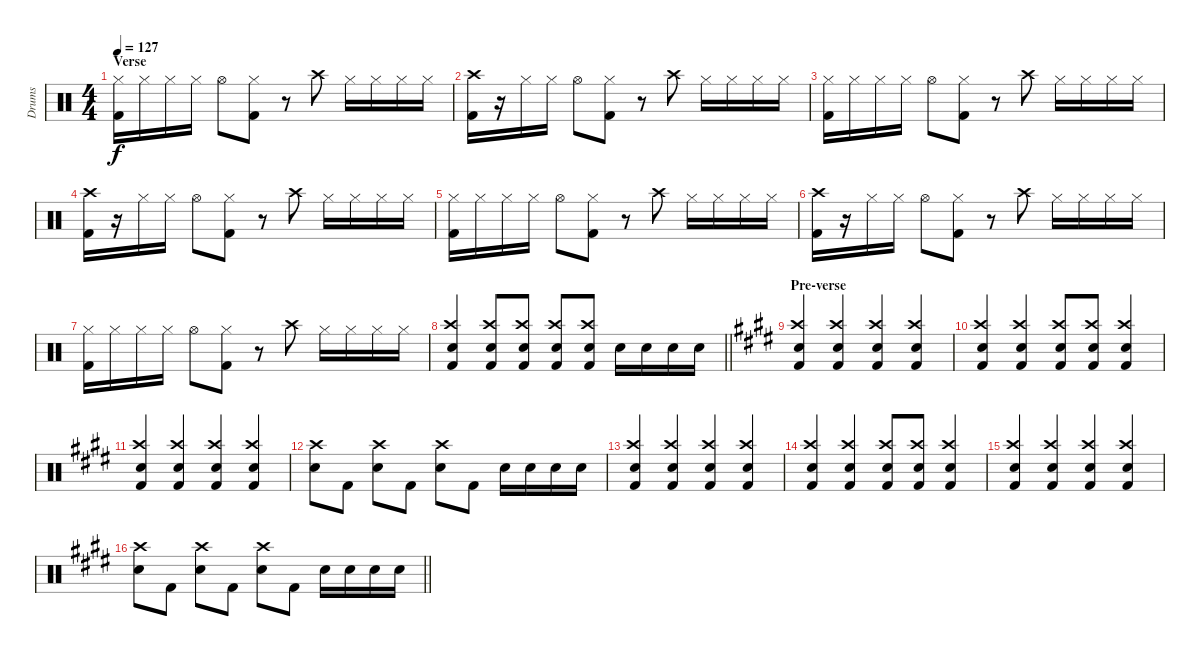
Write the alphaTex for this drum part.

\track ("Drums" "Drums") {instrument percussion}
\staff {score}
\articulation defaults
\ts (4 4)
\section ("" "Verse")
\tempo 127
\clef neutral
\ks c
("Hi-Hat (closed)" "Kick (hit) 2").16{dy f} "Hi-Hat (closed)".16 "Hi-Hat (closed)".16 "Hi-Hat (closed)".16 "Hi-Hat (open)".8 ("Hi-Hat (closed)" "Kick (hit) 2").8 r.8 "Crash high (hit)".8 "Hi-Hat (closed)".16 "Hi-Hat (closed)".16 "Hi-Hat (closed)".16 "Hi-Hat (closed)".16 |
("Crash high (hit)" "Kick (hit) 2").16 r.16 "Hi-Hat (closed)".16 "Hi-Hat (closed)".16 "Hi-Hat (open)".8 ("Hi-Hat (closed)" "Kick (hit) 2").8 r.8 "Crash high (hit)".8 "Hi-Hat (closed)".16 "Hi-Hat (closed)".16 "Hi-Hat (closed)".16 "Hi-Hat (closed)".16 |
("Hi-Hat (closed)" "Kick (hit) 2").16 "Hi-Hat (closed)".16 "Hi-Hat (closed)".16 "Hi-Hat (closed)".16 "Hi-Hat (open)".8 ("Hi-Hat (closed)" "Kick (hit) 2").8 r.8 "Crash high (hit)".8 "Hi-Hat (closed)".16 "Hi-Hat (closed)".16 "Hi-Hat (closed)".16 "Hi-Hat (closed)".16 |
("Crash high (hit)" "Kick (hit) 2").16 r.16 "Hi-Hat (closed)".16 "Hi-Hat (closed)".16 "Hi-Hat (open)".8 ("Hi-Hat (closed)" "Kick (hit) 2").8 r.8 "Crash high (hit)".8 "Hi-Hat (closed)".16 "Hi-Hat (closed)".16 "Hi-Hat (closed)".16 "Hi-Hat (closed)".16 |
("Hi-Hat (closed)" "Kick (hit) 2").16 "Hi-Hat (closed)".16 "Hi-Hat (closed)".16 "Hi-Hat (closed)".16 "Hi-Hat (open)".8 ("Hi-Hat (closed)" "Kick (hit) 2").8 r.8 "Crash high (hit)".8 "Hi-Hat (closed)".16 "Hi-Hat (closed)".16 "Hi-Hat (closed)".16 "Hi-Hat (closed)".16 |
("Crash high (hit)" "Kick (hit) 2").16 r.16 "Hi-Hat (closed)".16 "Hi-Hat (closed)".16 "Hi-Hat (open)".8 ("Hi-Hat (closed)" "Kick (hit) 2").8 r.8 "Crash high (hit)".8 "Hi-Hat (closed)".16 "Hi-Hat (closed)".16 "Hi-Hat (closed)".16 "Hi-Hat (closed)".16 |
("Hi-Hat (closed)" "Kick (hit) 2").16 "Hi-Hat (closed)".16 "Hi-Hat (closed)".16 "Hi-Hat (closed)".16 "Hi-Hat (open)".8 ("Hi-Hat (closed)" "Kick (hit) 2").8 r.8 "Crash high (hit)".8 "Hi-Hat (closed)".16 "Hi-Hat (closed)".16 "Hi-Hat (closed)".16 "Hi-Hat (closed)".16 |
\barLineRight lightlight
("Crash high (hit)" "Electric Snare (hit)" "Kick (hit) 2").4 ("Crash high (hit)" "Electric Snare (hit)" "Kick (hit) 2").8 ("Crash high (hit)" "Electric Snare (hit)" "Kick (hit) 2").8 ("Crash high (hit)" "Electric Snare (hit)" "Kick (hit) 2").8 ("Crash high (hit)" "Electric Snare (hit)" "Kick (hit) 2").8 "Electric Snare (hit)".16 "Electric Snare (hit)".16 "Electric Snare (hit)".16 "Electric Snare (hit)".16 |
\section ("" "Pre-verse")
\ks e
("Crash high (hit)" "Electric Snare (hit)" "Kick (hit) 2").4 ("Crash high (hit)" "Electric Snare (hit)" "Kick (hit) 2").4 ("Crash high (hit)" "Electric Snare (hit)" "Kick (hit) 2").4 ("Crash high (hit)" "Electric Snare (hit)" "Kick (hit) 2").4 |
("Crash high (hit)" "Electric Snare (hit)" "Kick (hit) 2").4 ("Crash high (hit)" "Electric Snare (hit)" "Kick (hit) 2").4 ("Crash high (hit)" "Electric Snare (hit)" "Kick (hit) 2").8 ("Crash high (hit)" "Electric Snare (hit)" "Kick (hit) 2").8 ("Crash high (hit)" "Electric Snare (hit)" "Kick (hit) 2").4 |
("Crash high (hit)" "Electric Snare (hit)" "Kick (hit) 2").4 ("Crash high (hit)" "Electric Snare (hit)" "Kick (hit) 2").4 ("Crash high (hit)" "Electric Snare (hit)" "Kick (hit) 2").4 ("Crash high (hit)" "Electric Snare (hit)" "Kick (hit) 2").4 |
("Crash high (hit)" "Electric Snare (hit)").8 "Kick (hit) 2".8 ("Crash high (hit)" "Electric Snare (hit)").8 "Kick (hit) 2".8 ("Crash high (hit)" "Electric Snare (hit)").8 "Kick (hit) 2".8 "Electric Snare (hit)".16 "Electric Snare (hit)".16 "Electric Snare (hit)".16 "Electric Snare (hit)".16 |
("Crash high (hit)" "Electric Snare (hit)" "Kick (hit) 2").4 ("Crash high (hit)" "Electric Snare (hit)" "Kick (hit) 2").4 ("Crash high (hit)" "Electric Snare (hit)" "Kick (hit) 2").4 ("Crash high (hit)" "Electric Snare (hit)" "Kick (hit) 2").4 |
("Crash high (hit)" "Electric Snare (hit)" "Kick (hit) 2").4 ("Crash high (hit)" "Electric Snare (hit)" "Kick (hit) 2").4 ("Crash high (hit)" "Electric Snare (hit)" "Kick (hit) 2").8 ("Crash high (hit)" "Electric Snare (hit)" "Kick (hit) 2").8 ("Crash high (hit)" "Electric Snare (hit)" "Kick (hit) 2").4 |
("Crash high (hit)" "Electric Snare (hit)" "Kick (hit) 2").4 ("Crash high (hit)" "Electric Snare (hit)" "Kick (hit) 2").4 ("Crash high (hit)" "Electric Snare (hit)" "Kick (hit) 2").4 ("Crash high (hit)" "Electric Snare (hit)" "Kick (hit) 2").4 |
\barLineRight lightlight
("Crash high (hit)" "Electric Snare (hit)").8 "Kick (hit) 2".8 ("Crash high (hit)" "Electric Snare (hit)").8 "Kick (hit) 2".8 ("Crash high (hit)" "Electric Snare (hit)").8 "Kick (hit) 2".8 "Electric Snare (hit)".16 "Electric Snare (hit)".16 "Electric Snare (hit)".16 "Electric Snare (hit)".16
